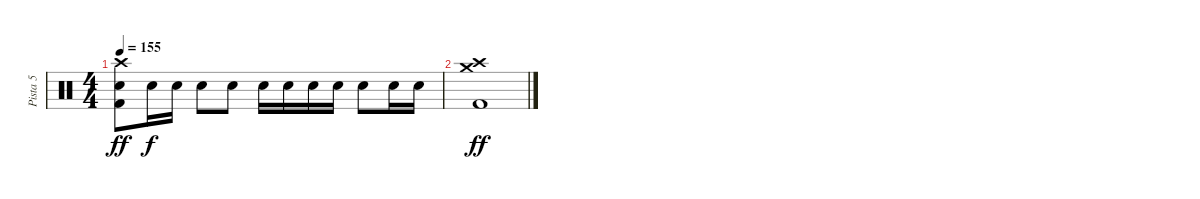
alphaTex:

\track ("Pista 5" "Pista 5") {instrument percussion}
\staff {score}
\articulation defaults
\ts (4 4)
\tempo 155
\clef neutral
\ks c
("Crash high (hit)" "Electric Snare (hit)" "Kick (hit) 2").8{dy ff} "Electric Snare (hit)".16{dy f} "Electric Snare (hit)".16 "Electric Snare (hit)".8 "Electric Snare (hit)".8 "Electric Snare (hit)".16 "Electric Snare (hit)".16 "Electric Snare (hit)".16 "Electric Snare (hit)".16 "Electric Snare (hit)".8 "Electric Snare (hit)".16 "Electric Snare (hit)".16 |
("Crash high (hit)" "Crash medium (hit)" "Kick (hit) 2").1{dy ff}
